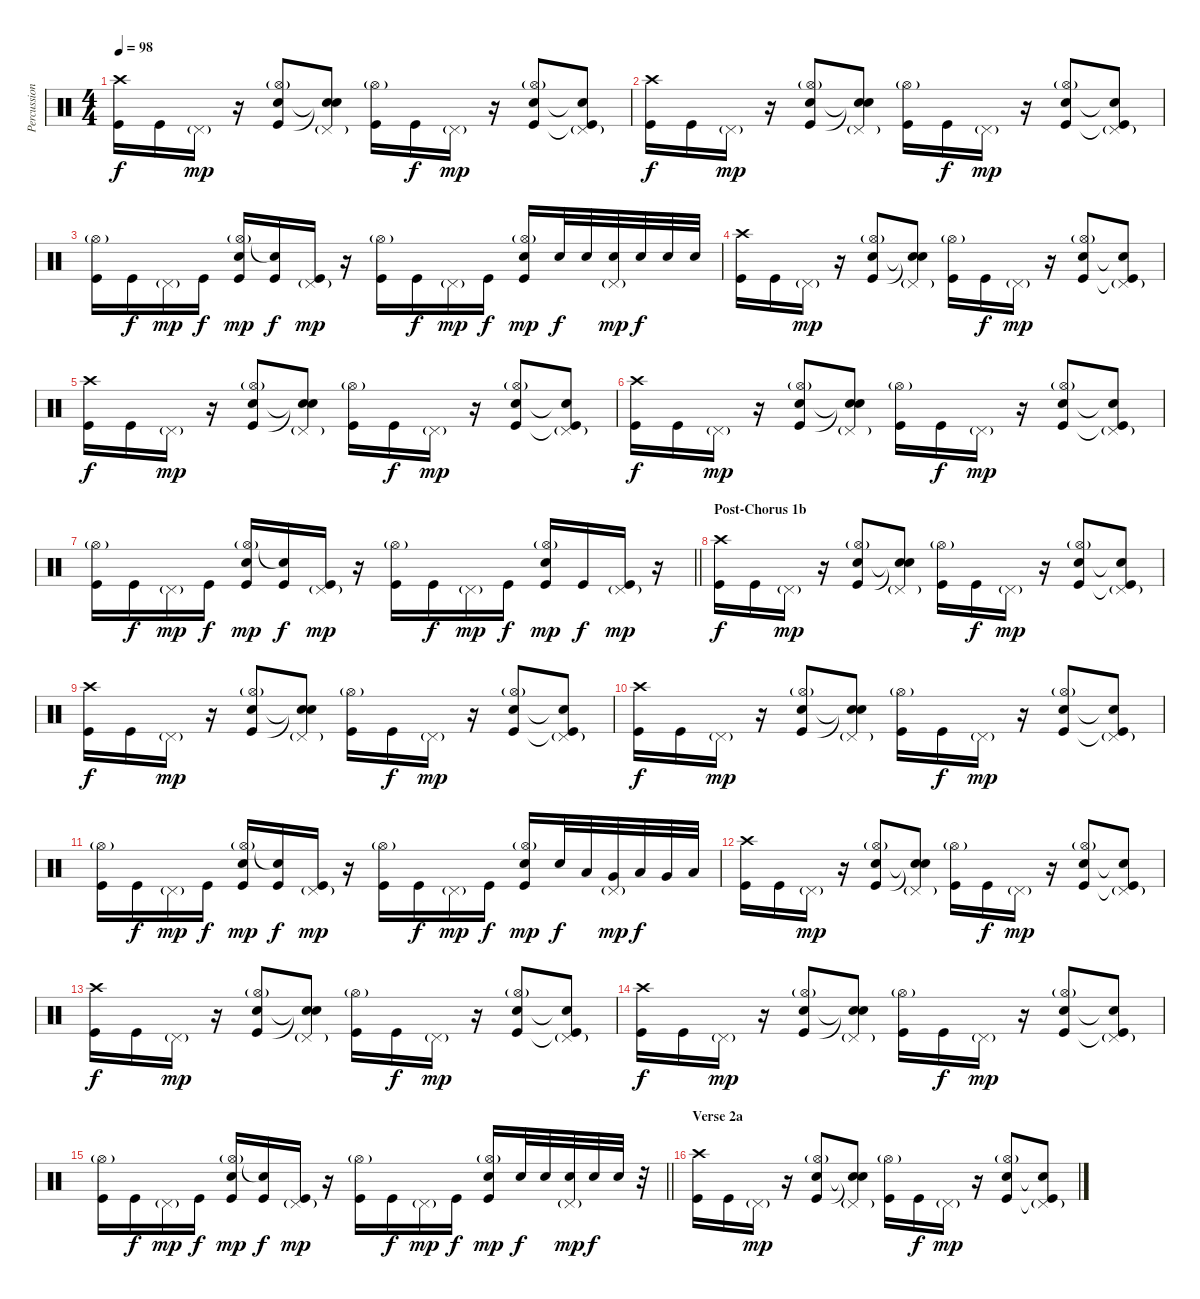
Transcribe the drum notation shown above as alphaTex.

\track ("Percussion" "Percussion") {instrument percussion}
\staff {score}
\articulation defaults
\ts (4 4)
\tempo 98
\clef neutral
\ks c
("Crash high (hit)" "Kick (hit)").16{dy f} "Kick (hit)".16 "Pedal Hi-Hat (hit)"{g}.16{dy mp} r.16 ("Hi-Hat (open)"{g} "Snare (hit) 2" "Kick (hit)").8 ("Pedal Hi-Hat (hit)"{g} "Snare (hit)"{t} "Snare (hit)"{t}).8 ("Hi-Hat (open)"{g} "Kick (hit)").16 "Kick (hit)".16{dy f} "Pedal Hi-Hat (hit)"{g}.16{dy mp} r.16 ("Hi-Hat (open)"{g} "Snare (hit) 2" "Kick (hit)").8 ("Pedal Hi-Hat (hit)"{g} "Snare (hit)"{t} "Kick (hit)"{t}).8 |
("Crash high (hit)" "Kick (hit)").16{dy f} "Kick (hit)".16 "Pedal Hi-Hat (hit)"{g}.16{dy mp} r.16 ("Hi-Hat (open)"{g} "Snare (hit) 2" "Kick (hit)").8 ("Pedal Hi-Hat (hit)"{g} "Snare (hit)"{t} "Snare (hit)"{t}).8 ("Hi-Hat (open)"{g} "Kick (hit)").16 "Kick (hit)".16{dy f} "Pedal Hi-Hat (hit)"{g}.16{dy mp} r.16 ("Hi-Hat (open)"{g} "Snare (hit) 2" "Kick (hit)").8 ("Pedal Hi-Hat (hit)"{g} "Snare (hit)"{t} "Kick (hit)"{t}).8 |
("Hi-Hat (open)"{g} "Kick (hit)").16 "Kick (hit)".16{dy f} "Pedal Hi-Hat (hit)"{g}.16{dy mp} "Kick (hit)".16{dy f} ("Hi-Hat (open)"{g} "Snare (hit) 2" "Kick (hit)").16{dy mp} ("Snare (hit)"{t} "Kick (hit)").16{dy f} ("Pedal Hi-Hat (hit)"{g} "Kick (hit)").16{dy mp} r.16 ("Hi-Hat (open)"{g} "Kick (hit)").16 "Kick (hit)".16{dy f} "Pedal Hi-Hat (hit)"{g}.16{dy mp} "Kick (hit)".16{dy f} ("Hi-Hat (open)"{g} "Snare (hit) 2" "Kick (hit)").16{dy mp} "Snare (hit) 2".32{dy f} "Snare (hit) 2".32 ("Pedal Hi-Hat (hit)"{g} "Snare (hit) 2").32{dy mp} "Snare (hit) 2".32{dy f} "Snare (hit) 2".32 "Snare (hit) 2".32 |
("Crash high (hit)" "Kick (hit)").16 "Kick (hit)".16 "Pedal Hi-Hat (hit)"{g}.16{dy mp} r.16 ("Hi-Hat (open)"{g} "Snare (hit) 2" "Kick (hit)").8 ("Pedal Hi-Hat (hit)"{g} "Snare (hit)"{t} "Snare (hit)"{t}).8 ("Hi-Hat (open)"{g} "Kick (hit)").16 "Kick (hit)".16{dy f} "Pedal Hi-Hat (hit)"{g}.16{dy mp} r.16 ("Hi-Hat (open)"{g} "Snare (hit) 2" "Kick (hit)").8 ("Pedal Hi-Hat (hit)"{g} "Snare (hit)"{t} "Kick (hit)"{t}).8 |
("Crash high (hit)" "Kick (hit)").16{dy f} "Kick (hit)".16 "Pedal Hi-Hat (hit)"{g}.16{dy mp} r.16 ("Hi-Hat (open)"{g} "Snare (hit) 2" "Kick (hit)").8 ("Pedal Hi-Hat (hit)"{g} "Snare (hit)"{t} "Snare (hit)"{t}).8 ("Hi-Hat (open)"{g} "Kick (hit)").16 "Kick (hit)".16{dy f} "Pedal Hi-Hat (hit)"{g}.16{dy mp} r.16 ("Hi-Hat (open)"{g} "Snare (hit) 2" "Kick (hit)").8 ("Pedal Hi-Hat (hit)"{g} "Snare (hit)"{t} "Kick (hit)"{t}).8 |
("Crash high (hit)" "Kick (hit)").16{dy f} "Kick (hit)".16 "Pedal Hi-Hat (hit)"{g}.16{dy mp} r.16 ("Hi-Hat (open)"{g} "Snare (hit) 2" "Kick (hit)").8 ("Pedal Hi-Hat (hit)"{g} "Snare (hit)"{t} "Snare (hit)"{t}).8 ("Hi-Hat (open)"{g} "Kick (hit)").16 "Kick (hit)".16{dy f} "Pedal Hi-Hat (hit)"{g}.16{dy mp} r.16 ("Hi-Hat (open)"{g} "Snare (hit) 2" "Kick (hit)").8 ("Pedal Hi-Hat (hit)"{g} "Snare (hit)"{t} "Kick (hit)"{t}).8 |
\barLineRight lightlight
("Hi-Hat (open)"{g} "Kick (hit)").16 "Kick (hit)".16{dy f} "Pedal Hi-Hat (hit)"{g}.16{dy mp} "Kick (hit)".16{dy f} ("Hi-Hat (open)"{g} "Snare (hit) 2" "Kick (hit)").16{dy mp} ("Snare (hit)"{t} "Kick (hit)").16{dy f} ("Pedal Hi-Hat (hit)"{g} "Kick (hit)").16{dy mp} r.16 ("Hi-Hat (open)"{g} "Kick (hit)").16 "Kick (hit)".16{dy f} "Pedal Hi-Hat (hit)"{g}.16{dy mp} "Kick (hit)".16{dy f} ("Hi-Hat (open)"{g} "Snare (hit) 2" "Kick (hit)").16{dy mp} "Kick (hit)".16{dy f} ("Pedal Hi-Hat (hit)"{g} "Kick (hit)").16{dy mp} r.16 |
\section ("" "Post-Chorus 1b")
("Crash high (hit)" "Kick (hit)").16{dy f} "Kick (hit)".16 "Pedal Hi-Hat (hit)"{g}.16{dy mp} r.16 ("Hi-Hat (open)"{g} "Snare (hit) 2" "Kick (hit)").8 ("Pedal Hi-Hat (hit)"{g} "Snare (hit)"{t} "Snare (hit)"{t}).8 ("Hi-Hat (open)"{g} "Kick (hit)").16 "Kick (hit)".16{dy f} "Pedal Hi-Hat (hit)"{g}.16{dy mp} r.16 ("Hi-Hat (open)"{g} "Snare (hit) 2" "Kick (hit)").8 ("Pedal Hi-Hat (hit)"{g} "Snare (hit)"{t} "Kick (hit)"{t}).8 |
("Crash high (hit)" "Kick (hit)").16{dy f} "Kick (hit)".16 "Pedal Hi-Hat (hit)"{g}.16{dy mp} r.16 ("Hi-Hat (open)"{g} "Snare (hit) 2" "Kick (hit)").8 ("Pedal Hi-Hat (hit)"{g} "Snare (hit)"{t} "Snare (hit)"{t}).8 ("Hi-Hat (open)"{g} "Kick (hit)").16 "Kick (hit)".16{dy f} "Pedal Hi-Hat (hit)"{g}.16{dy mp} r.16 ("Hi-Hat (open)"{g} "Snare (hit) 2" "Kick (hit)").8 ("Pedal Hi-Hat (hit)"{g} "Snare (hit)"{t} "Kick (hit)"{t}).8 |
("Crash high (hit)" "Kick (hit)").16{dy f} "Kick (hit)".16 "Pedal Hi-Hat (hit)"{g}.16{dy mp} r.16 ("Hi-Hat (open)"{g} "Snare (hit) 2" "Kick (hit)").8 ("Pedal Hi-Hat (hit)"{g} "Snare (hit)"{t} "Snare (hit)"{t}).8 ("Hi-Hat (open)"{g} "Kick (hit)").16 "Kick (hit)".16{dy f} "Pedal Hi-Hat (hit)"{g}.16{dy mp} r.16 ("Hi-Hat (open)"{g} "Snare (hit) 2" "Kick (hit)").8 ("Pedal Hi-Hat (hit)"{g} "Snare (hit)"{t} "Kick (hit)"{t}).8 |
("Hi-Hat (open)"{g} "Kick (hit)").16 "Kick (hit)".16{dy f} "Pedal Hi-Hat (hit)"{g}.16{dy mp} "Kick (hit)".16{dy f} ("Hi-Hat (open)"{g} "Snare (hit) 2" "Kick (hit)").16{dy mp} ("Snare (hit)"{t} "Kick (hit)").16{dy f} ("Pedal Hi-Hat (hit)"{g} "Kick (hit)").16{dy mp} r.16 ("Hi-Hat (open)"{g} "Kick (hit)").16 "Kick (hit)".16{dy f} "Pedal Hi-Hat (hit)"{g}.16{dy mp} "Kick (hit)".16{dy f} ("Hi-Hat (open)"{g} "Snare (hit) 2" "Kick (hit)").16{dy mp} "Snare (hit) 2".32{dy f} "Low Floor Tom (hit)".32 ("Pedal Hi-Hat (hit)"{g} "Very Low Tom (hit)").32{dy mp} "Low Floor Tom (hit)".32{dy f} "Very Low Tom (hit)".32 "Low Floor Tom (hit)".32 |
("Crash high (hit)" "Kick (hit)").16 "Kick (hit)".16 "Pedal Hi-Hat (hit)"{g}.16{dy mp} r.16 ("Hi-Hat (open)"{g} "Snare (hit) 2" "Kick (hit)").8 ("Pedal Hi-Hat (hit)"{g} "Snare (hit)"{t} "Snare (hit)"{t}).8 ("Hi-Hat (open)"{g} "Kick (hit)").16 "Kick (hit)".16{dy f} "Pedal Hi-Hat (hit)"{g}.16{dy mp} r.16 ("Hi-Hat (open)"{g} "Snare (hit) 2" "Kick (hit)").8 ("Pedal Hi-Hat (hit)"{g} "Snare (hit)"{t} "Kick (hit)"{t}).8 |
("Crash high (hit)" "Kick (hit)").16{dy f} "Kick (hit)".16 "Pedal Hi-Hat (hit)"{g}.16{dy mp} r.16 ("Hi-Hat (open)"{g} "Snare (hit) 2" "Kick (hit)").8 ("Pedal Hi-Hat (hit)"{g} "Snare (hit)"{t} "Snare (hit)"{t}).8 ("Hi-Hat (open)"{g} "Kick (hit)").16 "Kick (hit)".16{dy f} "Pedal Hi-Hat (hit)"{g}.16{dy mp} r.16 ("Hi-Hat (open)"{g} "Snare (hit) 2" "Kick (hit)").8 ("Pedal Hi-Hat (hit)"{g} "Snare (hit)"{t} "Kick (hit)"{t}).8 |
("Crash high (hit)" "Kick (hit)").16{dy f} "Kick (hit)".16 "Pedal Hi-Hat (hit)"{g}.16{dy mp} r.16 ("Hi-Hat (open)"{g} "Snare (hit) 2" "Kick (hit)").8 ("Pedal Hi-Hat (hit)"{g} "Snare (hit)"{t} "Snare (hit)"{t}).8 ("Hi-Hat (open)"{g} "Kick (hit)").16 "Kick (hit)".16{dy f} "Pedal Hi-Hat (hit)"{g}.16{dy mp} r.16 ("Hi-Hat (open)"{g} "Snare (hit) 2" "Kick (hit)").8 ("Pedal Hi-Hat (hit)"{g} "Snare (hit)"{t} "Kick (hit)"{t}).8 |
\barLineRight lightlight
("Hi-Hat (open)"{g} "Kick (hit)").16 "Kick (hit)".16{dy f} "Pedal Hi-Hat (hit)"{g}.16{dy mp} "Kick (hit)".16{dy f} ("Hi-Hat (open)"{g} "Snare (hit) 2" "Kick (hit)").16{dy mp} ("Snare (hit)"{t} "Kick (hit)").16{dy f} ("Pedal Hi-Hat (hit)"{g} "Kick (hit)").16{dy mp} r.16 ("Hi-Hat (open)"{g} "Kick (hit)").16 "Kick (hit)".16{dy f} "Pedal Hi-Hat (hit)"{g}.16{dy mp} "Kick (hit)".16{dy f} ("Hi-Hat (open)"{g} "Snare (hit) 2" "Kick (hit)").16{dy mp} "Snare (hit) 2".32{dy f} "Snare (hit) 2".32 ("Pedal Hi-Hat (hit)"{g} "Snare (hit) 2").32{dy mp} "Snare (hit) 2".32{dy f} "Snare (hit) 2".32 r.32 |
\section ("" "Verse 2a")
("Crash high (hit)" "Kick (hit)").16 "Kick (hit)".16 "Pedal Hi-Hat (hit)"{g}.16{dy mp} r.16 ("Hi-Hat (open)"{g} "Snare (hit) 2" "Kick (hit)").8 ("Pedal Hi-Hat (hit)"{g} "Snare (hit)"{t} "Snare (hit)"{t}).8 ("Hi-Hat (open)"{g} "Kick (hit)").16 "Kick (hit)".16{dy f} "Pedal Hi-Hat (hit)"{g}.16{dy mp} r.16 ("Hi-Hat (open)"{g} "Snare (hit) 2" "Kick (hit)").8 ("Pedal Hi-Hat (hit)"{g} "Snare (hit)"{t} "Kick (hit)"{t}).8
